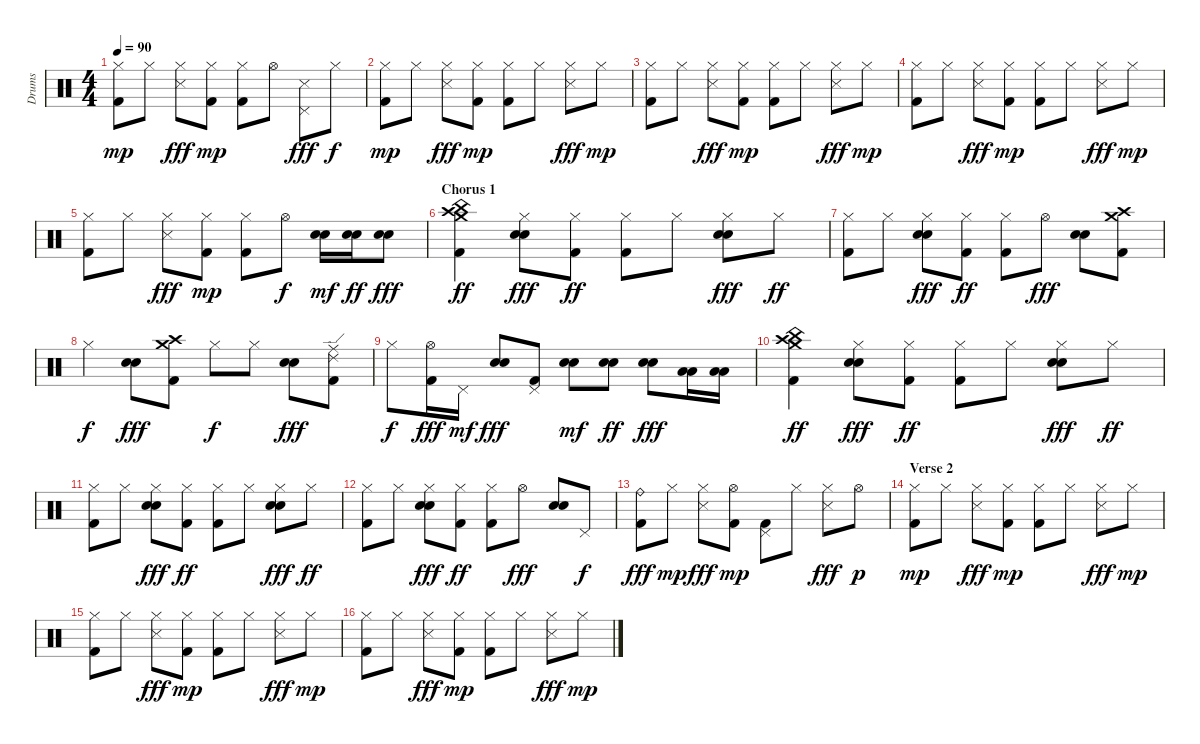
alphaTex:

\track ("Drums" "Drums") {instrument percussion}
\staff {score}
\articulation defaults
\ts (4 4)
\tempo 90
\clef neutral
\ks c
("Hi-Hat (closed)" "Kick (hit) 2").8{dy mp} "Hi-Hat (closed)".8 ("Hi-Hat (closed)" "Snare (side stick) 3").8{dy fff} ("Hi-Hat (closed)" "Kick (hit) 2").8{dy mp} ("Hi-Hat (closed)" "Kick (hit) 2").8 "Hi-Hat (open)".8 ("Pedal Hi-Hat (hit)" "Snare (side stick) 3").8{dy fff} "Hi-Hat (closed)".8{dy f} |
("Hi-Hat (closed)" "Kick (hit) 2").8{dy mp} "Hi-Hat (closed)".8 ("Hi-Hat (closed)" "Snare (side stick) 3").8{dy fff} ("Hi-Hat (closed)" "Kick (hit) 2").8{dy mp} ("Hi-Hat (closed)" "Kick (hit) 2").8 "Hi-Hat (closed)".8 ("Hi-Hat (closed)" "Snare (side stick) 3").8{dy fff} "Hi-Hat (closed)".8{dy mp} |
("Hi-Hat (closed)" "Kick (hit) 2").8 "Hi-Hat (closed)".8 ("Hi-Hat (closed)" "Snare (side stick) 3").8{dy fff} ("Hi-Hat (closed)" "Kick (hit) 2").8{dy mp} ("Hi-Hat (closed)" "Kick (hit) 2").8 "Hi-Hat (closed)".8 ("Hi-Hat (closed)" "Snare (side stick) 3").8{dy fff} "Hi-Hat (closed)".8{dy mp} |
("Hi-Hat (closed)" "Kick (hit) 2").8 "Hi-Hat (closed)".8 ("Hi-Hat (closed)" "Snare (side stick) 3").8{dy fff} ("Hi-Hat (closed)" "Kick (hit) 2").8{dy mp} ("Hi-Hat (closed)" "Kick (hit) 2").8 "Hi-Hat (closed)".8 ("Hi-Hat (closed)" "Snare (side stick) 3").8{dy fff} "Hi-Hat (closed)".8{dy mp} |
("Hi-Hat (closed)" "Kick (hit) 2").8 "Hi-Hat (closed)".8 ("Hi-Hat (closed)" "Snare (side stick) 3").8{dy fff} ("Hi-Hat (closed)" "Kick (hit) 2").8{dy mp} ("Hi-Hat (closed)" "Kick (hit) 2").8 "Hi-Hat (open)".8{dy f} ("Snare (hit) 2" "Electric Snare (hit)").16{dy mf} ("Snare (hit) 2" "Electric Snare (hit)").16{dy ff} ("Snare (hit) 2" "Electric Snare (hit)").8{dy fff} |
\section ("" "Chorus 1")
("Crash medium (hit)" "Crash high (hit)" "China (hit)" "Kick (hit) 2").4{dy ff volume 12} ("Hi-Hat (closed)" "Snare (hit) 2" "Electric Snare (hit)").8{dy fff} ("Hi-Hat (closed)" "Kick (hit) 2").8{dy ff} ("Hi-Hat (closed)" "Kick (hit) 2").8 "Hi-Hat (closed)".8 ("Hi-Hat (closed)" "Snare (hit) 2" "Electric Snare (hit)").8{dy fff} "Hi-Hat (closed)".8{dy ff} |
("Hi-Hat (closed)" "Kick (hit) 2").8 "Hi-Hat (closed)".8 ("Hi-Hat (closed)" "Snare (hit) 2" "Electric Snare (hit)").8{dy fff} ("Hi-Hat (closed)" "Kick (hit) 2").8{dy ff} ("Hi-Hat (closed)" "Kick (hit) 2").8 "Hi-Hat (open)".8{dy fff} ("Snare (hit) 2" "Electric Snare (hit)").8 ("Crash medium (hit)" "Crash high (hit)" "Kick (hit) 2").8 |
"Hi-Hat (closed)".4{dy f} ("Snare (hit) 2" "Electric Snare (hit)").8{dy fff} ("Crash medium (hit)" "Crash high (hit)" "Kick (hit) 2").8 "Hi-Hat (closed)".8{dy f} "Hi-Hat (closed)".8 ("Snare (hit) 2" "Electric Snare (hit)").8{dy fff} ("Ride (edge) 2" "Ride (middle)" "Kick (hit) 2").8 |
"Hi-Hat (closed)".8{dy f} ("Hi-Hat (open)" "Kick (hit) 2").16{dy fff} "Pedal Hi-Hat (hit)".16{dy mf} ("Snare (hit) 2" "Electric Snare (hit)").8{dy fff} ("Pedal Hi-Hat (hit)" "Kick (hit) 2").8 ("Snare (hit) 2" "Electric Snare (hit)").8{dy mf} ("Snare (hit) 2" "Electric Snare (hit)").8{dy ff} ("Snare (hit) 2" "Electric Snare (hit)").8{dy fff} ("Low Tom (hit)" "Low Tom (hit)").16 ("Low Tom (hit)" "Low Tom (hit)").16 |
("Crash medium (hit)" "Crash high (hit)" "China (hit)" "Kick (hit) 2").4{dy ff} ("Hi-Hat (closed)" "Snare (hit) 2" "Electric Snare (hit)").8{dy fff} ("Hi-Hat (closed)" "Kick (hit) 2").8{dy ff} ("Hi-Hat (closed)" "Kick (hit) 2").8 "Hi-Hat (closed)".8 ("Hi-Hat (closed)" "Snare (hit) 2" "Electric Snare (hit)").8{dy fff} "Hi-Hat (closed)".8{dy ff} |
("Hi-Hat (closed)" "Kick (hit) 2").8 "Hi-Hat (closed)".8 ("Hi-Hat (closed)" "Snare (hit) 2" "Electric Snare (hit)").8{dy fff} ("Hi-Hat (closed)" "Kick (hit) 2").8{dy ff} ("Hi-Hat (closed)" "Kick (hit) 2").8 "Hi-Hat (closed)".8 ("Hi-Hat (closed)" "Snare (hit) 2" "Electric Snare (hit)").8{dy fff} "Hi-Hat (closed)".8{dy ff} |
("Hi-Hat (closed)" "Kick (hit) 2").8 "Hi-Hat (closed)".8 ("Hi-Hat (closed)" "Snare (hit) 2" "Electric Snare (hit)").8{dy fff} ("Hi-Hat (closed)" "Kick (hit) 2").8{dy ff} ("Hi-Hat (closed)" "Kick (hit) 2").8 "Hi-Hat (open)".8{dy fff} ("Snare (hit) 2" "Electric Snare (hit)").8 "Pedal Hi-Hat (hit)".8{dy f} |
("Ride (bell)" "Kick (hit) 2").8{dy fff volume 10} "Hi-Hat (closed)".8{dy mp} ("Hi-Hat (closed)" "Snare (side stick) 3").8{dy fff} ("Hi-Hat (open)" "Kick (hit) 2").8{dy mp} ("Pedal Hi-Hat (hit)" "Kick (hit) 2").8 "Hi-Hat (closed)".8 ("Hi-Hat (closed)" "Snare (side stick) 3").8{dy fff} "Hi-Hat (open)".8{dy p} |
\section ("" "Verse 2")
("Hi-Hat (closed)" "Kick (hit) 2").8{dy mp} "Hi-Hat (closed)".8 ("Hi-Hat (closed)" "Snare (side stick) 3").8{dy fff} ("Hi-Hat (closed)" "Kick (hit) 2").8{dy mp} ("Hi-Hat (closed)" "Kick (hit) 2").8 "Hi-Hat (closed)".8 ("Hi-Hat (closed)" "Snare (side stick) 3").8{dy fff} "Hi-Hat (closed)".8{dy mp} |
("Hi-Hat (closed)" "Kick (hit) 2").8 "Hi-Hat (closed)".8 ("Hi-Hat (closed)" "Snare (side stick) 3").8{dy fff} ("Hi-Hat (closed)" "Kick (hit) 2").8{dy mp} ("Hi-Hat (closed)" "Kick (hit) 2").8 "Hi-Hat (closed)".8 ("Hi-Hat (closed)" "Snare (side stick) 3").8{dy fff} "Hi-Hat (closed)".8{dy mp} |
("Hi-Hat (closed)" "Kick (hit) 2").8 "Hi-Hat (closed)".8 ("Hi-Hat (closed)" "Snare (side stick) 3").8{dy fff} ("Hi-Hat (closed)" "Kick (hit) 2").8{dy mp} ("Hi-Hat (closed)" "Kick (hit) 2").8 "Hi-Hat (closed)".8 ("Hi-Hat (closed)" "Snare (side stick) 3").8{dy fff} "Hi-Hat (closed)".8{dy mp}
